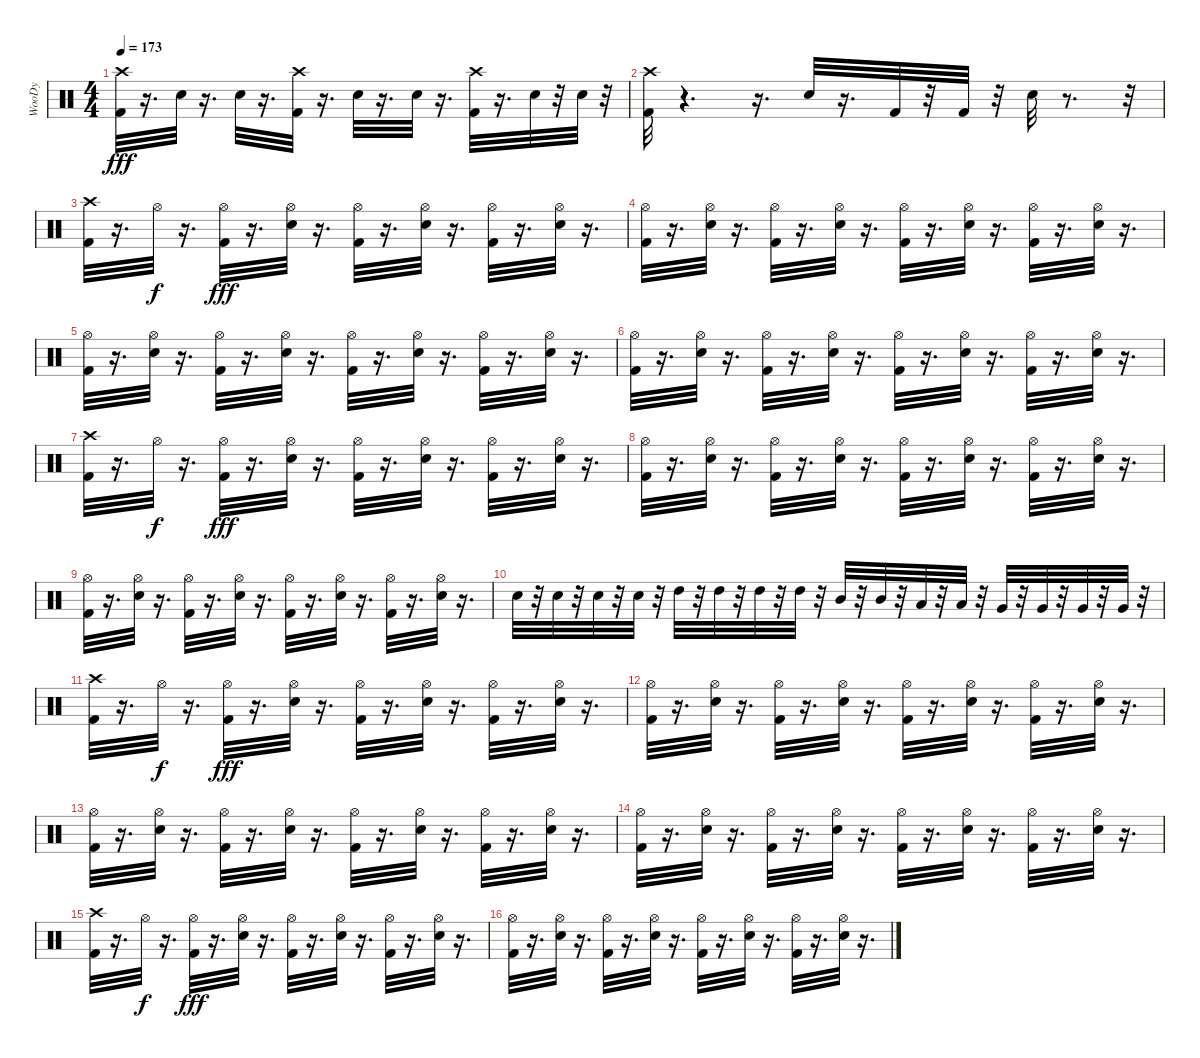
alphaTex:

\track ("WooDy" "WooDy") {instrument percussion}
\staff {score}
\articulation defaults
\ts (4 4)
\tempo 173
\clef neutral
\ks c
("Kick (hit) 2" "Crash high (hit)").32{dy fff} r.16{d} "Electric Snare (hit)".32 r.16{d} "Electric Snare (hit)".32 r.16{d} ("Kick (hit) 2" "Crash high (hit)").32 r.16{d} "Electric Snare (hit)".32 r.16{d} "Electric Snare (hit)".32 r.16{d} ("Kick (hit) 2" "Crash high (hit)").32 r.16{d} "Electric Snare (hit)".32 r.32 "Electric Snare (hit)".32 r.32 |
("Kick (hit) 2" "Crash high (hit)").32 r.4{d} r.16{d} "Electric Snare (hit)".32 r.16{d} "Kick (hit) 2".32 r.32 "Kick (hit) 2".32 r.32 "Electric Snare (hit)".32 r.8{d} r.32 |
("Kick (hit) 2" "Crash high (hit)").32 r.16{d} "Hi-Hat (open)".32{dy f} r.16{d} ("Kick (hit) 2" "Hi-Hat (open)").32{dy fff} r.16{d} ("Electric Snare (hit)" "Hi-Hat (open)").32 r.16{d} ("Kick (hit) 2" "Hi-Hat (open)").32 r.16{d} ("Electric Snare (hit)" "Hi-Hat (open)").32 r.16{d} ("Kick (hit) 2" "Hi-Hat (open)").32 r.16{d} ("Electric Snare (hit)" "Hi-Hat (open)").32 r.16{d} |
("Kick (hit) 2" "Hi-Hat (open)").32 r.16{d} ("Electric Snare (hit)" "Hi-Hat (open)").32 r.16{d} ("Kick (hit) 2" "Hi-Hat (open)").32 r.16{d} ("Electric Snare (hit)" "Hi-Hat (open)").32 r.16{d} ("Kick (hit) 2" "Hi-Hat (open)").32 r.16{d} ("Electric Snare (hit)" "Hi-Hat (open)").32 r.16{d} ("Kick (hit) 2" "Hi-Hat (open)").32 r.16{d} ("Electric Snare (hit)" "Hi-Hat (open)").32 r.16{d} |
("Kick (hit) 2" "Hi-Hat (open)").32 r.16{d} ("Electric Snare (hit)" "Hi-Hat (open)").32 r.16{d} ("Kick (hit) 2" "Hi-Hat (open)").32 r.16{d} ("Electric Snare (hit)" "Hi-Hat (open)").32 r.16{d} ("Kick (hit) 2" "Hi-Hat (open)").32 r.16{d} ("Electric Snare (hit)" "Hi-Hat (open)").32 r.16{d} ("Kick (hit) 2" "Hi-Hat (open)").32 r.16{d} ("Electric Snare (hit)" "Hi-Hat (open)").32 r.16{d} |
("Kick (hit) 2" "Hi-Hat (open)").32 r.16{d} ("Electric Snare (hit)" "Hi-Hat (open)").32 r.16{d} ("Kick (hit) 2" "Hi-Hat (open)").32 r.16{d} ("Electric Snare (hit)" "Hi-Hat (open)").32 r.16{d} ("Kick (hit) 2" "Hi-Hat (open)").32 r.16{d} ("Electric Snare (hit)" "Hi-Hat (open)").32 r.16{d} ("Kick (hit) 2" "Hi-Hat (open)").32 r.16{d} ("Electric Snare (hit)" "Hi-Hat (open)").32 r.16{d} |
("Kick (hit) 2" "Crash high (hit)").32 r.16{d} "Hi-Hat (open)".32{dy f} r.16{d} ("Kick (hit) 2" "Hi-Hat (open)").32{dy fff} r.16{d} ("Electric Snare (hit)" "Hi-Hat (open)").32 r.16{d} ("Kick (hit) 2" "Hi-Hat (open)").32 r.16{d} ("Electric Snare (hit)" "Hi-Hat (open)").32 r.16{d} ("Kick (hit) 2" "Hi-Hat (open)").32 r.16{d} ("Electric Snare (hit)" "Hi-Hat (open)").32 r.16{d} |
("Kick (hit) 2" "Hi-Hat (open)").32 r.16{d} ("Electric Snare (hit)" "Hi-Hat (open)").32 r.16{d} ("Kick (hit) 2" "Hi-Hat (open)").32 r.16{d} ("Electric Snare (hit)" "Hi-Hat (open)").32 r.16{d} ("Kick (hit) 2" "Hi-Hat (open)").32 r.16{d} ("Electric Snare (hit)" "Hi-Hat (open)").32 r.16{d} ("Kick (hit) 2" "Hi-Hat (open)").32 r.16{d} ("Electric Snare (hit)" "Hi-Hat (open)").32 r.16{d} |
("Kick (hit) 2" "Hi-Hat (open)").32 r.16{d} ("Electric Snare (hit)" "Hi-Hat (open)").32 r.16{d} ("Kick (hit) 2" "Hi-Hat (open)").32 r.16{d} ("Electric Snare (hit)" "Hi-Hat (open)").32 r.16{d} ("Kick (hit) 2" "Hi-Hat (open)").32 r.16{d} ("Electric Snare (hit)" "Hi-Hat (open)").32 r.16{d} ("Kick (hit) 2" "Hi-Hat (open)").32 r.16{d} ("Electric Snare (hit)" "Hi-Hat (open)").32 r.16{d} |
"Electric Snare (hit)".32 r.32 "Electric Snare (hit)".32 r.32 "Electric Snare (hit)".32 r.32 "Electric Snare (hit)".32 r.32 "High Tom (hit)".32 r.32 "High Tom (hit)".32 r.32 "High Tom (hit)".32 r.32 "High Tom (hit)".32 r.32 "Mid Tom (hit)".32 r.32 "Mid Tom (hit)".32 r.32 "Low Tom (hit)".32 r.32 "Low Tom (hit)".32 r.32 "Very Low Tom (hit)".32 r.32 "Very Low Tom (hit)".32 r.32 "Very Low Tom (hit)".32 r.32 "Very Low Tom (hit)".32 r.32 |
("Kick (hit) 2" "Crash high (hit)").32 r.16{d} "Hi-Hat (open)".32{dy f} r.16{d} ("Kick (hit) 2" "Hi-Hat (open)").32{dy fff} r.16{d} ("Electric Snare (hit)" "Hi-Hat (open)").32 r.16{d} ("Kick (hit) 2" "Hi-Hat (open)").32 r.16{d} ("Electric Snare (hit)" "Hi-Hat (open)").32 r.16{d} ("Kick (hit) 2" "Hi-Hat (open)").32 r.16{d} ("Electric Snare (hit)" "Hi-Hat (open)").32 r.16{d} |
("Kick (hit) 2" "Hi-Hat (open)").32 r.16{d} ("Electric Snare (hit)" "Hi-Hat (open)").32 r.16{d} ("Kick (hit) 2" "Hi-Hat (open)").32 r.16{d} ("Electric Snare (hit)" "Hi-Hat (open)").32 r.16{d} ("Kick (hit) 2" "Hi-Hat (open)").32 r.16{d} ("Electric Snare (hit)" "Hi-Hat (open)").32 r.16{d} ("Kick (hit) 2" "Hi-Hat (open)").32 r.16{d} ("Electric Snare (hit)" "Hi-Hat (open)").32 r.16{d} |
("Kick (hit) 2" "Hi-Hat (open)").32 r.16{d} ("Electric Snare (hit)" "Hi-Hat (open)").32 r.16{d} ("Kick (hit) 2" "Hi-Hat (open)").32 r.16{d} ("Electric Snare (hit)" "Hi-Hat (open)").32 r.16{d} ("Kick (hit) 2" "Hi-Hat (open)").32 r.16{d} ("Electric Snare (hit)" "Hi-Hat (open)").32 r.16{d} ("Kick (hit) 2" "Hi-Hat (open)").32 r.16{d} ("Electric Snare (hit)" "Hi-Hat (open)").32 r.16{d} |
("Kick (hit) 2" "Hi-Hat (open)").32 r.16{d} ("Electric Snare (hit)" "Hi-Hat (open)").32 r.16{d} ("Kick (hit) 2" "Hi-Hat (open)").32 r.16{d} ("Electric Snare (hit)" "Hi-Hat (open)").32 r.16{d} ("Kick (hit) 2" "Hi-Hat (open)").32 r.16{d} ("Electric Snare (hit)" "Hi-Hat (open)").32 r.16{d} ("Kick (hit) 2" "Hi-Hat (open)").32 r.16{d} ("Electric Snare (hit)" "Hi-Hat (open)").32 r.16{d} |
("Kick (hit) 2" "Crash high (hit)").32 r.16{d} "Hi-Hat (open)".32{dy f} r.16{d} ("Kick (hit) 2" "Hi-Hat (open)").32{dy fff} r.16{d} ("Electric Snare (hit)" "Hi-Hat (open)").32 r.16{d} ("Kick (hit) 2" "Hi-Hat (open)").32 r.16{d} ("Electric Snare (hit)" "Hi-Hat (open)").32 r.16{d} ("Kick (hit) 2" "Hi-Hat (open)").32 r.16{d} ("Electric Snare (hit)" "Hi-Hat (open)").32 r.16{d} |
("Kick (hit) 2" "Hi-Hat (open)").32 r.16{d} ("Electric Snare (hit)" "Hi-Hat (open)").32 r.16{d} ("Kick (hit) 2" "Hi-Hat (open)").32 r.16{d} ("Electric Snare (hit)" "Hi-Hat (open)").32 r.16{d} ("Kick (hit) 2" "Hi-Hat (open)").32 r.16{d} ("Electric Snare (hit)" "Hi-Hat (open)").32 r.16{d} ("Kick (hit) 2" "Hi-Hat (open)").32 r.16{d} ("Electric Snare (hit)" "Hi-Hat (open)").32 r.16{d}
